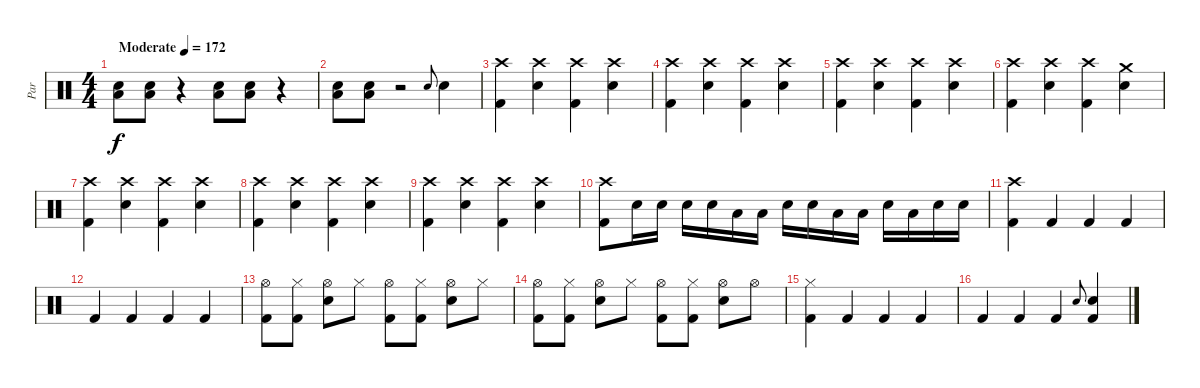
\track ("Par" "Par") {instrument percussion}
\staff {score}
\articulation defaults
\ts (4 4)
\tempo (172 "Moderate")
\clef neutral
\ks c
("Low Floor Tom (hit)" "Snare (hit) 2").8{dy f} ("Low Floor Tom (hit)" "Snare (hit) 2").8 r.4 ("Low Floor Tom (hit)" "Snare (hit) 2").8 ("Low Floor Tom (hit)" "Snare (hit) 2").8 r.4 |
("Low Floor Tom (hit)" "Snare (hit) 2").8 ("Low Floor Tom (hit)" "Snare (hit) 2").8 r.2 "Snare (hit) 2".8{gr onbeat} "Snare (hit) 2".4 |
("Crash high (hit)" "Kick (hit) 2").4 ("Crash high (hit)" "Snare (hit) 2").4 ("Crash high (hit)" "Kick (hit) 2").4 ("Crash high (hit)" "Snare (hit) 2").4 |
("Crash high (hit)" "Kick (hit) 2").4 ("Crash high (hit)" "Snare (hit) 2").4 ("Crash high (hit)" "Kick (hit) 2").4 ("Crash high (hit)" "Snare (hit) 2").4 |
("Crash high (hit)" "Kick (hit) 2").4 ("Crash high (hit)" "Snare (hit) 2").4 ("Crash high (hit)" "Kick (hit) 2").4 ("Crash high (hit)" "Snare (hit) 2").4 |
("Crash high (hit)" "Kick (hit) 2").4 ("Crash high (hit)" "Snare (hit) 2").4 ("Crash high (hit)" "Kick (hit) 2").4 ("Crash medium (hit)" "Snare (hit) 2").4 |
("Crash high (hit)" "Kick (hit) 2").4 ("Crash high (hit)" "Snare (hit) 2").4 ("Crash high (hit)" "Kick (hit) 2").4 ("Crash high (hit)" "Snare (hit) 2").4 |
("Crash high (hit)" "Kick (hit) 2").4 ("Crash high (hit)" "Snare (hit) 2").4 ("Crash high (hit)" "Kick (hit) 2").4 ("Crash high (hit)" "Snare (hit) 2").4 |
("Crash high (hit)" "Kick (hit) 2").4 ("Crash high (hit)" "Snare (hit) 2").4 ("Crash high (hit)" "Kick (hit) 2").4 ("Crash high (hit)" "Snare (hit) 2").4 |
("Crash high (hit)" "Kick (hit) 2").8 "Snare (hit) 2".16 "Snare (hit) 2".16 "Snare (hit) 2".16 "Snare (hit) 2".16 "Low Floor Tom (hit)".16 "Low Floor Tom (hit)".16 "Snare (hit) 2".16 "Snare (hit) 2".16 "Low Floor Tom (hit)".16 "Low Floor Tom (hit)".16 "Snare (hit) 2".16 "Low Floor Tom (hit)".16 "Snare (hit) 2".16 "Snare (hit) 2".16 |
("Crash high (hit)" "Kick (hit) 2").4 "Kick (hit) 2".4 "Kick (hit) 2".4 "Kick (hit) 2".4 |
"Kick (hit) 2".4 "Kick (hit) 2".4 "Kick (hit) 2".4 "Kick (hit) 2".4 |
("Hi-Hat (open)" "Kick (hit) 2").8 ("Hi-Hat (closed)" "Kick (hit) 2").8 ("Hi-Hat (open)" "Snare (hit) 2").8 "Hi-Hat (closed)".8 ("Hi-Hat (open)" "Kick (hit) 2").8 ("Hi-Hat (closed)" "Kick (hit) 2").8 ("Hi-Hat (open)" "Snare (hit) 2").8 "Hi-Hat (closed)".8 |
("Hi-Hat (open)" "Kick (hit) 2").8 ("Hi-Hat (closed)" "Kick (hit) 2").8 ("Hi-Hat (open)" "Snare (hit) 2").8 "Hi-Hat (closed)".8 ("Hi-Hat (open)" "Kick (hit) 2").8 ("Hi-Hat (closed)" "Kick (hit) 2").8 ("Hi-Hat (open)" "Snare (hit) 2").8 "Hi-Hat (open)".8 |
("Hi-Hat (closed)" "Kick (hit) 2").4 "Kick (hit) 2".4 "Kick (hit) 2".4 "Kick (hit) 2".4 |
"Kick (hit) 2".4 "Kick (hit) 2".4 "Kick (hit) 2".4 "Snare (hit) 2".8{gr onbeat} ("Snare (hit) 2" "Kick (hit) 2").4
